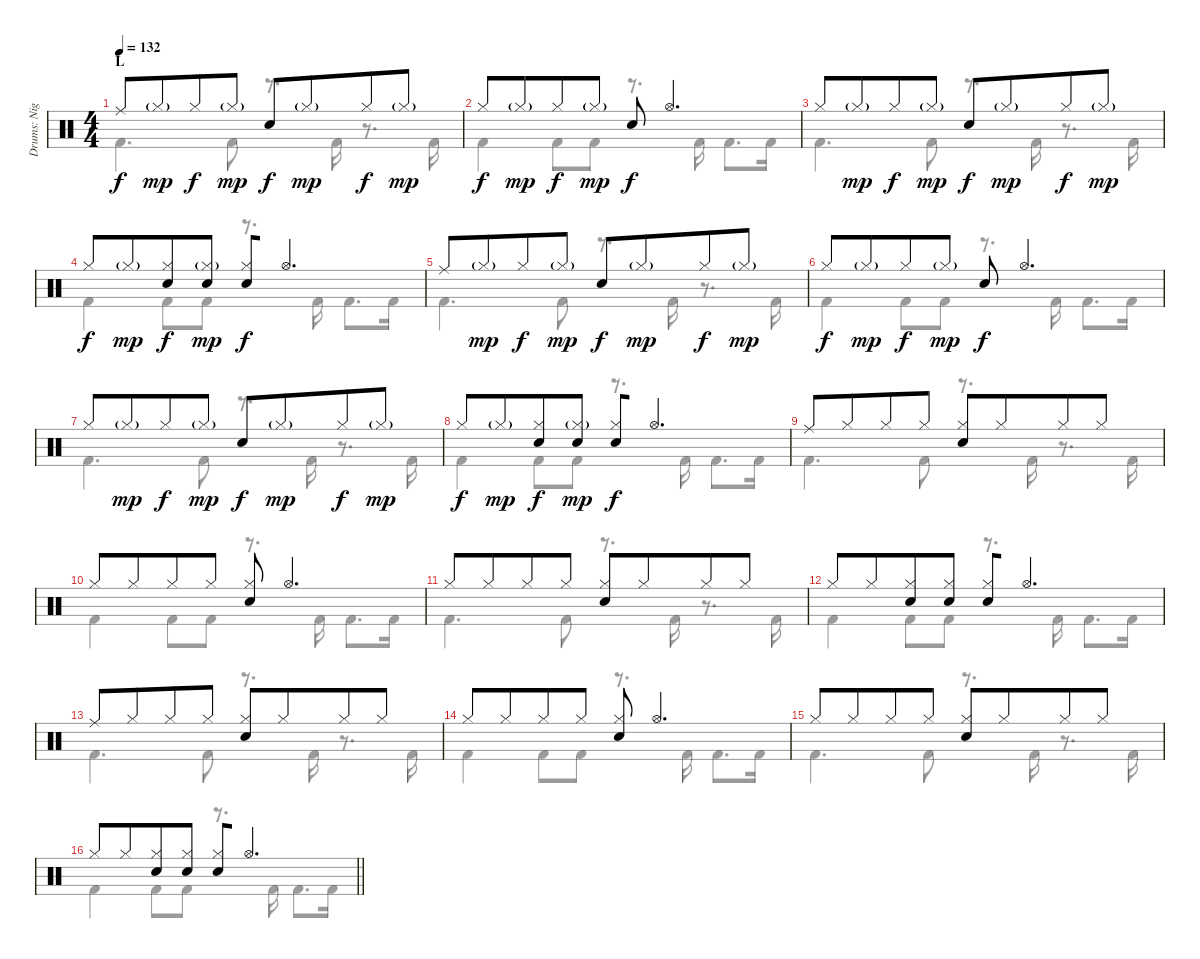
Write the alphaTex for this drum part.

\track ("Drums: Nigel Ollson" "Drums: Nig") {instrument percussion}
\staff {score}
\articulation defaults
\voice
\ts (4 4)
\section ("" "L")
\tempo 132
\clef neutral
\ks c "Ride (middle)".8{dy f} "Hi-Hat (closed)"{g}.8{dy mp beam merge} "Hi-Hat (closed)".8{dy f} "Hi-Hat (closed)"{g}.8{dy mp} "Electric Snare (hit)".8{dy f} "Hi-Hat (closed)"{g}.8{dy mp beam merge} "Hi-Hat (closed)".8{dy f} "Hi-Hat (closed)"{g}.8{dy mp}
|
"Hi-Hat (closed)".8{dy f} "Hi-Hat (closed)"{g}.8{dy mp beam merge} "Hi-Hat (closed)".8{dy f} "Hi-Hat (closed)"{g}.8{dy mp} "Electric Snare (hit)".8{dy f} "Hi-Hat (open)".4{d} |
"Hi-Hat (closed)".8 "Hi-Hat (closed)"{g}.8{dy mp beam merge} "Hi-Hat (closed)".8{dy f} "Hi-Hat (closed)"{g}.8{dy mp} "Electric Snare (hit)".8{dy f} "Hi-Hat (closed)"{g}.8{dy mp beam merge} "Hi-Hat (closed)".8{dy f} "Hi-Hat (closed)"{g}.8{dy mp} |
"Hi-Hat (closed)".8{dy f} "Hi-Hat (closed)"{g}.8{dy mp beam merge} ("Hi-Hat (closed)" "Electric Snare (hit)").8{dy f} ("Hi-Hat (closed)"{g} "Electric Snare (hit)").8{dy mp} ("Hi-Hat (closed)" "Electric Snare (hit)").8{dy f beam merge} "Hi-Hat (open)".4{d} |
"Ride (middle)".8 "Hi-Hat (closed)"{g}.8{dy mp beam merge} "Hi-Hat (closed)".8{dy f} "Hi-Hat (closed)"{g}.8{dy mp} "Electric Snare (hit)".8{dy f} "Hi-Hat (closed)"{g}.8{dy mp beam merge} "Hi-Hat (closed)".8{dy f} "Hi-Hat (closed)"{g}.8{dy mp} |
"Hi-Hat (closed)".8{dy f} "Hi-Hat (closed)"{g}.8{dy mp beam merge} "Hi-Hat (closed)".8{dy f} "Hi-Hat (closed)"{g}.8{dy mp} "Electric Snare (hit)".8{dy f} "Hi-Hat (open)".4{d} |
"Hi-Hat (closed)".8 "Hi-Hat (closed)"{g}.8{dy mp beam merge} "Hi-Hat (closed)".8{dy f} "Hi-Hat (closed)"{g}.8{dy mp} "Electric Snare (hit)".8{dy f} "Hi-Hat (closed)"{g}.8{dy mp beam merge} "Hi-Hat (closed)".8{dy f} "Hi-Hat (closed)"{g}.8{dy mp} |
"Hi-Hat (closed)".8{dy f} "Hi-Hat (closed)"{g}.8{dy mp beam merge} ("Hi-Hat (closed)" "Electric Snare (hit)").8{dy f} ("Hi-Hat (closed)"{g} "Electric Snare (hit)").8{dy mp} ("Hi-Hat (closed)" "Electric Snare (hit)").8{dy f beam merge} "Hi-Hat (open)".4{d} |
"Ride (middle)".8 "Hi-Hat (closed)".8{beam merge} "Hi-Hat (closed)".8 "Hi-Hat (closed)".8 ("Hi-Hat (closed)" "Electric Snare (hit)").8 "Hi-Hat (closed)".8{beam merge} "Hi-Hat (closed)".8 "Hi-Hat (closed)".8 |
"Hi-Hat (closed)".8 "Hi-Hat (closed)".8{beam merge} "Hi-Hat (closed)".8 "Hi-Hat (closed)".8 ("Hi-Hat (closed)" "Electric Snare (hit)").8 "Hi-Hat (open)".4{d} |
"Hi-Hat (closed)".8 "Hi-Hat (closed)".8{beam merge} "Hi-Hat (closed)".8 "Hi-Hat (closed)".8 ("Hi-Hat (closed)" "Electric Snare (hit)").8 "Hi-Hat (closed)".8{beam merge} "Hi-Hat (closed)".8 "Hi-Hat (closed)".8 |
"Hi-Hat (closed)".8 "Hi-Hat (closed)".8{beam merge} ("Hi-Hat (closed)" "Electric Snare (hit)").8 ("Hi-Hat (closed)" "Electric Snare (hit)").8 ("Hi-Hat (closed)" "Electric Snare (hit)").8{beam merge} "Hi-Hat (open)".4{d} |
"Ride (middle)".8 "Hi-Hat (closed)".8{beam merge} "Hi-Hat (closed)".8 "Hi-Hat (closed)".8 ("Hi-Hat (closed)" "Electric Snare (hit)").8 "Hi-Hat (closed)".8{beam merge} "Hi-Hat (closed)".8 "Hi-Hat (closed)".8 |
"Hi-Hat (closed)".8 "Hi-Hat (closed)".8{beam merge} "Hi-Hat (closed)".8 "Hi-Hat (closed)".8 ("Hi-Hat (closed)" "Electric Snare (hit)").8 "Hi-Hat (open)".4{d} |
"Hi-Hat (closed)".8 "Hi-Hat (closed)".8{beam merge} "Hi-Hat (closed)".8 "Hi-Hat (closed)".8 ("Hi-Hat (closed)" "Electric Snare (hit)").8 "Hi-Hat (closed)".8{beam merge} "Hi-Hat (closed)".8 "Hi-Hat (closed)".8 |
\barLineRight lightlight "Hi-Hat (closed)".8 "Hi-Hat (closed)".8{beam merge}
("Hi-Hat (closed)" "Electric Snare (hit)").8 ("Hi-Hat (closed)" "Electric Snare (hit)").8 ("Hi-Hat (closed)" "Electric Snare (hit)").8{beam merge} "Hi-Hat (open)".4{d}
\voice
\clef neutral
\ottava regular
\simile none
\ks c "Kick (hit) 2".4{d dy f} "Kick (hit) 2".8
r.8{d} "Kick (hit) 2".16 r.8{d} "Kick (hit) 2".16 |
"Kick (hit) 2".4 "Kick (hit) 2".8 "Kick (hit) 2".8 r.8{d} "Kick (hit) 2".16 "Kick (hit) 2".8{d} "Kick (hit) 2".16 |
"Kick (hit) 2".4{d} "Kick (hit) 2".8 r.8{d} "Kick (hit) 2".16 r.8{d} "Kick (hit) 2".16 |
"Kick (hit) 2".4 "Kick (hit) 2".8 "Kick (hit) 2".8 r.8{d} "Kick (hit) 2".16 "Kick (hit) 2".8{d} "Kick (hit) 2".16 |
"Kick (hit) 2".4{d} "Kick (hit) 2".8 r.8{d} "Kick (hit) 2".16 r.8{d} "Kick (hit) 2".16 |
"Kick (hit) 2".4 "Kick (hit) 2".8 "Kick (hit) 2".8 r.8{d} "Kick (hit) 2".16 "Kick (hit) 2".8{d} "Kick (hit) 2".16 |
"Kick (hit) 2".4{d} "Kick (hit) 2".8 r.8{d} "Kick (hit) 2".16 r.8{d} "Kick (hit) 2".16 |
"Kick (hit) 2".4 "Kick (hit) 2".8 "Kick (hit) 2".8 r.8{d} "Kick (hit) 2".16 "Kick (hit) 2".8{d} "Kick (hit) 2".16 |
"Kick (hit) 2".4{d} "Kick (hit) 2".8 r.8{d} "Kick (hit) 2".16 r.8{d} "Kick (hit) 2".16 |
"Kick (hit) 2".4 "Kick (hit) 2".8 "Kick (hit) 2".8 r.8{d} "Kick (hit) 2".16 "Kick (hit) 2".8{d} "Kick (hit) 2".16 |
"Kick (hit) 2".4{d} "Kick (hit) 2".8 r.8{d} "Kick (hit) 2".16 r.8{d} "Kick (hit) 2".16 |
"Kick (hit) 2".4 "Kick (hit) 2".8 "Kick (hit) 2".8 r.8{d} "Kick (hit) 2".16 "Kick (hit) 2".8{d} "Kick (hit) 2".16 |
"Kick (hit) 2".4{d} "Kick (hit) 2".8 r.8{d} "Kick (hit) 2".16 r.8{d} "Kick (hit) 2".16 |
"Kick (hit) 2".4 "Kick (hit) 2".8 "Kick (hit) 2".8 r.8{d} "Kick (hit) 2".16 "Kick (hit) 2".8{d} "Kick (hit) 2".16 |
"Kick (hit) 2".4{d} "Kick (hit) 2".8 r.8{d} "Kick (hit) 2".16 r.8{d} "Kick (hit) 2".16 |
\barLineRight lightlight "Kick (hit) 2".4 "Kick (hit) 2".8 "Kick (hit) 2".8
r.8{d} "Kick (hit) 2".16 "Kick (hit) 2".8{d} "Kick (hit) 2".16
